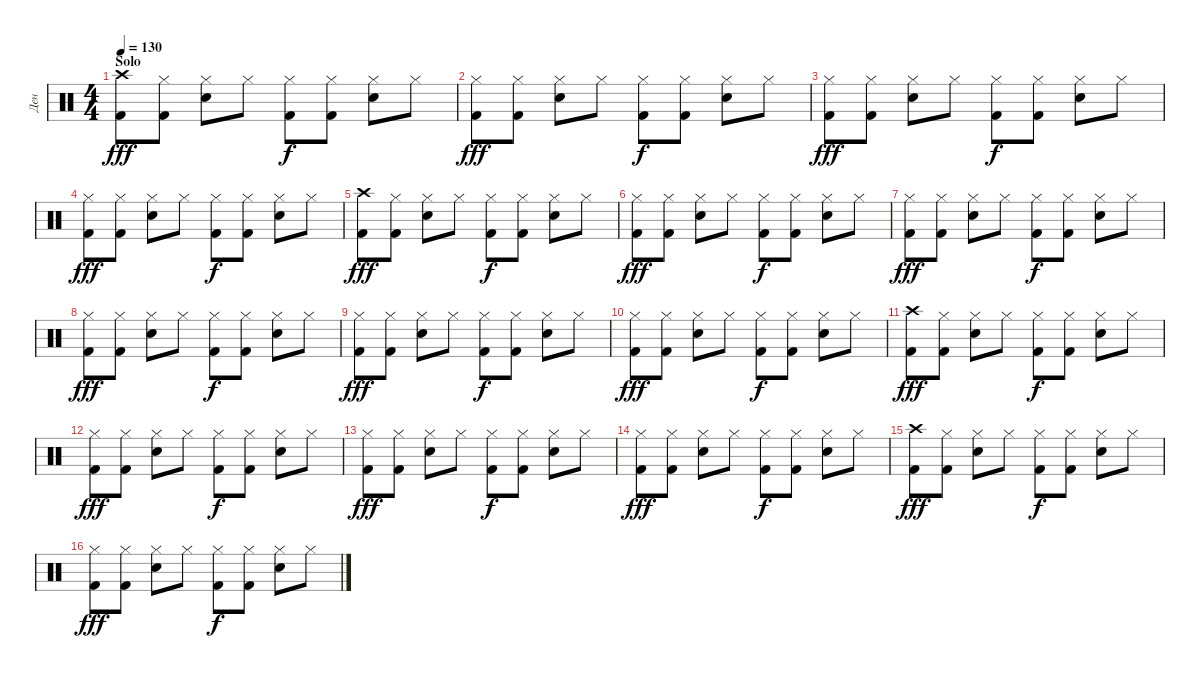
\track ("Ден" "Ден") {instrument percussion}
\staff {score}
\articulation defaults
\ts (4 4)
\section ("" "Solo")
\tempo 130
\clef neutral
\ks c
("Crash high (hit)" "Kick (hit) 2").8{dy fff} ("Hi-Hat (closed)" "Kick (hit) 2").8 ("Hi-Hat (closed)" "Snare (hit) 2").8 "Hi-Hat (closed)".8 ("Hi-Hat (closed)" "Kick (hit) 2").8{dy f} ("Hi-Hat (closed)" "Kick (hit) 2").8 ("Hi-Hat (closed)" "Snare (hit) 2").8 "Hi-Hat (closed)".8 |
("Hi-Hat (closed)" "Kick (hit) 2").8{dy fff} ("Hi-Hat (closed)" "Kick (hit) 2").8 ("Hi-Hat (closed)" "Snare (hit) 2").8 "Hi-Hat (closed)".8 ("Hi-Hat (closed)" "Kick (hit) 2").8{dy f} ("Hi-Hat (closed)" "Kick (hit) 2").8 ("Hi-Hat (closed)" "Snare (hit) 2").8 "Hi-Hat (closed)".8 |
("Hi-Hat (closed)" "Kick (hit) 2").8{dy fff} ("Hi-Hat (closed)" "Kick (hit) 2").8 ("Hi-Hat (closed)" "Snare (hit) 2").8 "Hi-Hat (closed)".8 ("Hi-Hat (closed)" "Kick (hit) 2").8{dy f} ("Hi-Hat (closed)" "Kick (hit) 2").8 ("Hi-Hat (closed)" "Snare (hit) 2").8 "Hi-Hat (closed)".8 |
("Hi-Hat (closed)" "Kick (hit) 2").8{dy fff} ("Hi-Hat (closed)" "Kick (hit) 2").8 ("Hi-Hat (closed)" "Snare (hit) 2").8 "Hi-Hat (closed)".8 ("Hi-Hat (closed)" "Kick (hit) 2").8{dy f} ("Hi-Hat (closed)" "Kick (hit) 2").8 ("Hi-Hat (closed)" "Snare (hit) 2").8 "Hi-Hat (closed)".8 |
("Crash high (hit)" "Kick (hit) 2").8{dy fff} ("Hi-Hat (closed)" "Kick (hit) 2").8 ("Hi-Hat (closed)" "Snare (hit) 2").8 "Hi-Hat (closed)".8 ("Hi-Hat (closed)" "Kick (hit) 2").8{dy f} ("Hi-Hat (closed)" "Kick (hit) 2").8 ("Hi-Hat (closed)" "Snare (hit) 2").8 "Hi-Hat (closed)".8 |
("Hi-Hat (closed)" "Kick (hit) 2").8{dy fff} ("Hi-Hat (closed)" "Kick (hit) 2").8 ("Hi-Hat (closed)" "Snare (hit) 2").8 "Hi-Hat (closed)".8 ("Hi-Hat (closed)" "Kick (hit) 2").8{dy f} ("Hi-Hat (closed)" "Kick (hit) 2").8 ("Hi-Hat (closed)" "Snare (hit) 2").8 "Hi-Hat (closed)".8 |
("Hi-Hat (closed)" "Kick (hit) 2").8{dy fff} ("Hi-Hat (closed)" "Kick (hit) 2").8 ("Hi-Hat (closed)" "Snare (hit) 2").8 "Hi-Hat (closed)".8 ("Hi-Hat (closed)" "Kick (hit) 2").8{dy f} ("Hi-Hat (closed)" "Kick (hit) 2").8 ("Hi-Hat (closed)" "Snare (hit) 2").8 "Hi-Hat (closed)".8 |
("Hi-Hat (closed)" "Kick (hit) 2").8{dy fff} ("Hi-Hat (closed)" "Kick (hit) 2").8 ("Hi-Hat (closed)" "Snare (hit) 2").8 "Hi-Hat (closed)".8 ("Hi-Hat (closed)" "Kick (hit) 2").8{dy f} ("Hi-Hat (closed)" "Kick (hit) 2").8 ("Hi-Hat (closed)" "Snare (hit) 2").8 "Hi-Hat (closed)".8 |
("Hi-Hat (closed)" "Kick (hit) 2").8{dy fff} ("Hi-Hat (closed)" "Kick (hit) 2").8 ("Hi-Hat (closed)" "Snare (hit) 2").8 "Hi-Hat (closed)".8 ("Hi-Hat (closed)" "Kick (hit) 2").8{dy f} ("Hi-Hat (closed)" "Kick (hit) 2").8 ("Hi-Hat (closed)" "Snare (hit) 2").8 "Hi-Hat (closed)".8 |
("Hi-Hat (closed)" "Kick (hit) 2").8{dy fff} ("Hi-Hat (closed)" "Kick (hit) 2").8 ("Hi-Hat (closed)" "Snare (hit) 2").8 "Hi-Hat (closed)".8 ("Hi-Hat (closed)" "Kick (hit) 2").8{dy f} ("Hi-Hat (closed)" "Kick (hit) 2").8 ("Hi-Hat (closed)" "Snare (hit) 2").8 "Hi-Hat (closed)".8 |
("Crash high (hit)" "Kick (hit) 2").8{dy fff} ("Hi-Hat (closed)" "Kick (hit) 2").8 ("Hi-Hat (closed)" "Snare (hit) 2").8 "Hi-Hat (closed)".8 ("Hi-Hat (closed)" "Kick (hit) 2").8{dy f} ("Hi-Hat (closed)" "Kick (hit) 2").8 ("Hi-Hat (closed)" "Snare (hit) 2").8 "Hi-Hat (closed)".8 |
("Hi-Hat (closed)" "Kick (hit) 2").8{dy fff} ("Hi-Hat (closed)" "Kick (hit) 2").8 ("Hi-Hat (closed)" "Snare (hit) 2").8 "Hi-Hat (closed)".8 ("Hi-Hat (closed)" "Kick (hit) 2").8{dy f} ("Hi-Hat (closed)" "Kick (hit) 2").8 ("Hi-Hat (closed)" "Snare (hit) 2").8 "Hi-Hat (closed)".8 |
("Hi-Hat (closed)" "Kick (hit) 2").8{dy fff} ("Hi-Hat (closed)" "Kick (hit) 2").8 ("Hi-Hat (closed)" "Snare (hit) 2").8 "Hi-Hat (closed)".8 ("Hi-Hat (closed)" "Kick (hit) 2").8{dy f} ("Hi-Hat (closed)" "Kick (hit) 2").8 ("Hi-Hat (closed)" "Snare (hit) 2").8 "Hi-Hat (closed)".8 |
("Hi-Hat (closed)" "Kick (hit) 2").8{dy fff} ("Hi-Hat (closed)" "Kick (hit) 2").8 ("Hi-Hat (closed)" "Snare (hit) 2").8 "Hi-Hat (closed)".8 ("Hi-Hat (closed)" "Kick (hit) 2").8{dy f} ("Hi-Hat (closed)" "Kick (hit) 2").8 ("Hi-Hat (closed)" "Snare (hit) 2").8 "Hi-Hat (closed)".8 |
("Crash high (hit)" "Kick (hit) 2").8{dy fff} ("Hi-Hat (closed)" "Kick (hit) 2").8 ("Hi-Hat (closed)" "Snare (hit) 2").8 "Hi-Hat (closed)".8 ("Hi-Hat (closed)" "Kick (hit) 2").8{dy f} ("Hi-Hat (closed)" "Kick (hit) 2").8 ("Hi-Hat (closed)" "Snare (hit) 2").8 "Hi-Hat (closed)".8 |
("Hi-Hat (closed)" "Kick (hit) 2").8{dy fff} ("Hi-Hat (closed)" "Kick (hit) 2").8 ("Hi-Hat (closed)" "Snare (hit) 2").8 "Hi-Hat (closed)".8 ("Hi-Hat (closed)" "Kick (hit) 2").8{dy f} ("Hi-Hat (closed)" "Kick (hit) 2").8 ("Hi-Hat (closed)" "Snare (hit) 2").8 "Hi-Hat (closed)".8
